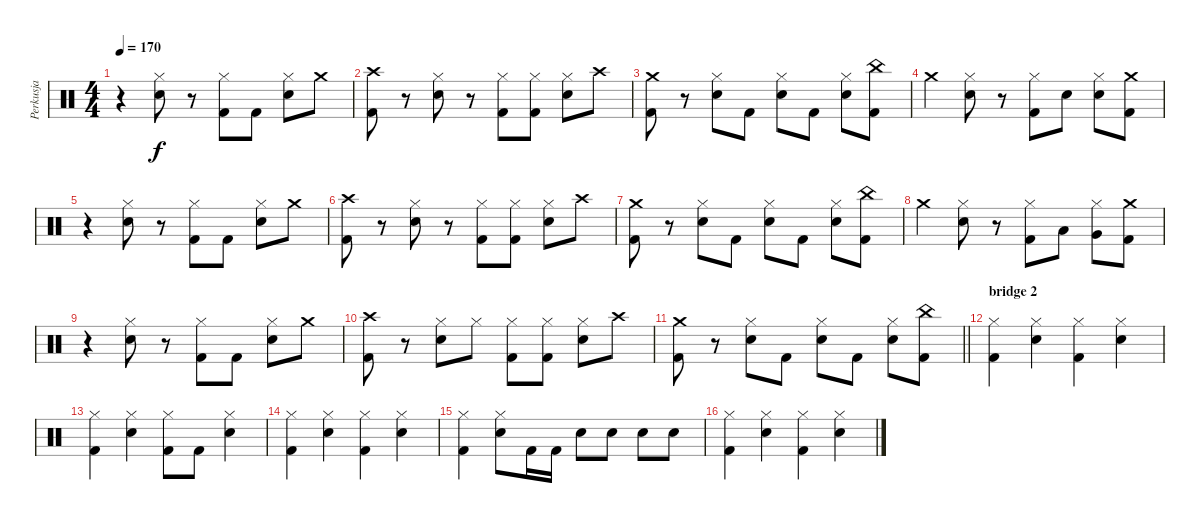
\track ("Perkusja" "Perkusja") {instrument percussion}
\staff {score}
\articulation defaults
\ts (4 4)
\tempo 170
\clef neutral
\ks c
r.4{dy f} ("Hi-Hat (closed)" "Snare (hit) 2").8 r.8 ("Hi-Hat (closed)" "Kick (hit) 2").8 "Kick (hit) 2".8 ("Hi-Hat (closed)" "Snare (hit) 2").8 "Crash medium (hit)".8 |
("Crash high (hit)" "Kick (hit) 2").8 r.8 ("Hi-Hat (closed)" "Snare (hit) 2").8 r.8 ("Hi-Hat (closed)" "Kick (hit) 2").8 ("Hi-Hat (closed)" "Kick (hit) 2").8 ("Hi-Hat (closed)" "Snare (hit) 2").8 "Crash high (hit)".8 |
("Crash medium (hit)" "Kick (hit) 2").8 r.8 ("Hi-Hat (closed)" "Snare (hit) 2").8 "Kick (hit) 2".8 ("Hi-Hat (closed)" "Snare (hit) 2").8 "Kick (hit) 2".8 ("Hi-Hat (closed)" "Snare (hit) 2").8 ("China (hit)" "Kick (hit) 2").8 |
"Crash medium (hit)".4 ("Hi-Hat (closed)" "Snare (hit) 2").8 r.8 ("Hi-Hat (closed)" "Kick (hit) 2").8 "Snare (hit) 2".8 ("Hi-Hat (closed)" "Snare (hit) 2").8 ("Crash medium (hit)" "Kick (hit) 2").8 |
r.4 ("Hi-Hat (closed)" "Snare (hit) 2").8 r.8 ("Hi-Hat (closed)" "Kick (hit) 2").8 "Kick (hit) 2".8 ("Hi-Hat (closed)" "Snare (hit) 2").8 "Crash medium (hit)".8 |
("Crash high (hit)" "Kick (hit) 2").8 r.8 ("Hi-Hat (closed)" "Snare (hit) 2").8 r.8 ("Hi-Hat (closed)" "Kick (hit) 2").8 ("Hi-Hat (closed)" "Kick (hit) 2").8 ("Hi-Hat (closed)" "Snare (hit) 2").8 "Crash high (hit)".8 |
("Crash medium (hit)" "Kick (hit) 2").8 r.8 ("Hi-Hat (closed)" "Snare (hit) 2").8 "Kick (hit) 2".8 ("Hi-Hat (closed)" "Snare (hit) 2").8 "Kick (hit) 2".8 ("Hi-Hat (closed)" "Snare (hit) 2").8 ("China (hit)" "Kick (hit) 2").8 |
"Crash medium (hit)".4 ("Hi-Hat (closed)" "Snare (hit) 2").8 r.8 ("Hi-Hat (closed)" "Kick (hit) 2").8 "Low Tom (hit)".8 ("Hi-Hat (closed)" "Very Low Tom (hit)").8 ("Crash medium (hit)" "Kick (hit) 2").8 |
r.4 ("Hi-Hat (closed)" "Snare (hit) 2").8 r.8 ("Hi-Hat (closed)" "Kick (hit) 2").8 "Kick (hit) 2".8 ("Hi-Hat (closed)" "Snare (hit) 2").8 "Crash medium (hit)".8 |
("Crash high (hit)" "Kick (hit) 2").8 r.8 ("Hi-Hat (closed)" "Snare (hit) 2").8 "Hi-Hat (closed)".8 ("Hi-Hat (closed)" "Kick (hit) 2").8 ("Hi-Hat (closed)" "Kick (hit) 2").8 ("Hi-Hat (closed)" "Snare (hit) 2").8 "Crash high (hit)".8 |
\barLineRight lightlight
("Crash medium (hit)" "Kick (hit) 2").8 r.8 ("Hi-Hat (closed)" "Snare (hit) 2").8 "Kick (hit) 2".8 ("Hi-Hat (closed)" "Snare (hit) 2").8 "Kick (hit) 2".8 ("Hi-Hat (closed)" "Snare (hit) 2").8 ("China (hit)" "Kick (hit) 2").8 |
\section ("" "bridge 2")
("Hi-Hat (closed)" "Kick (hit) 2").4 ("Hi-Hat (closed)" "Snare (hit) 2").4 ("Hi-Hat (closed)" "Kick (hit) 2").4 ("Hi-Hat (closed)" "Snare (hit) 2").4 |
("Hi-Hat (closed)" "Kick (hit) 2").4 ("Hi-Hat (closed)" "Snare (hit) 2").4 ("Hi-Hat (closed)" "Kick (hit) 2").8 "Kick (hit) 2".8 ("Hi-Hat (closed)" "Snare (hit) 2").4 |
("Hi-Hat (closed)" "Kick (hit) 2").4 ("Hi-Hat (closed)" "Snare (hit) 2").4 ("Hi-Hat (closed)" "Kick (hit) 2").4 ("Hi-Hat (closed)" "Snare (hit) 2").4 |
("Hi-Hat (closed)" "Kick (hit) 2").4 ("Hi-Hat (closed)" "Snare (hit) 2").8 "Kick (hit) 2".16 "Kick (hit) 2".16 "Snare (hit) 2".8 "Snare (hit) 2".8 "Snare (hit) 2".8 "Snare (hit) 2".8 |
("Hi-Hat (closed)" "Kick (hit) 2").4 ("Hi-Hat (closed)" "Snare (hit) 2").4 ("Hi-Hat (closed)" "Kick (hit) 2").4 ("Hi-Hat (closed)" "Snare (hit) 2").4
